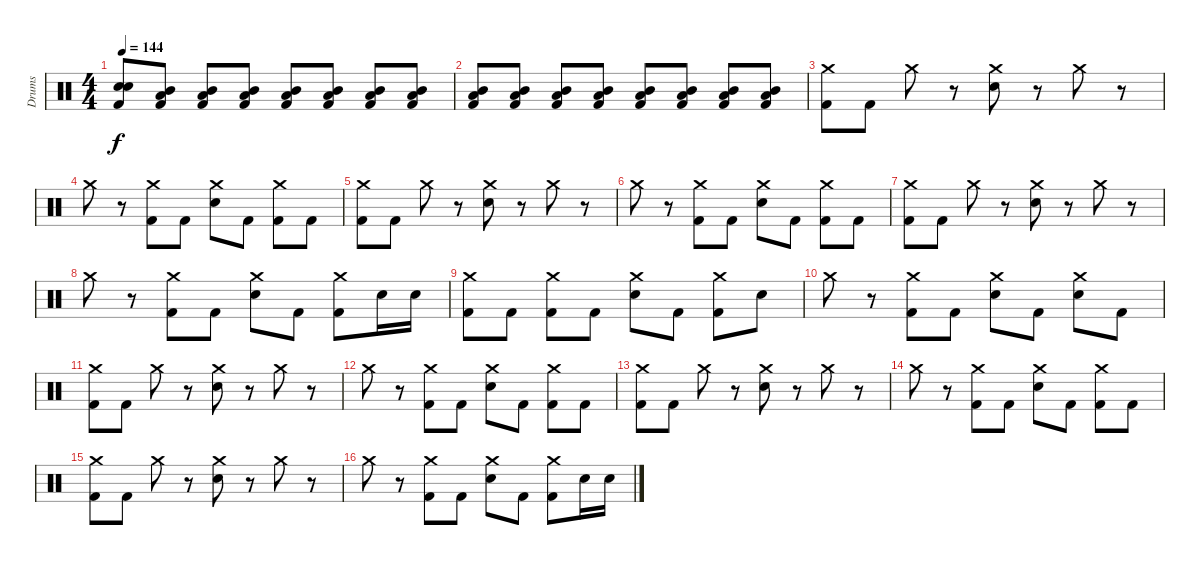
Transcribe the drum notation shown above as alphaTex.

\track ("Drums" "Drums") {instrument percussion}
\staff {score}
\articulation defaults
\ts (4 4)
\tempo 144
\clef neutral
\ks c
("Electric Snare (hit)" "Electric Snare (hit)" "Kick (hit) 2").8{dy f} ("Mid Tom (hit)" "Low Tom (hit)" "Kick (hit) 2").8 ("Mid Tom (hit)" "Low Tom (hit)" "Kick (hit) 2").8 ("Mid Tom (hit)" "Low Tom (hit)" "Kick (hit) 2").8 ("Mid Tom (hit)" "Low Tom (hit)" "Kick (hit) 2").8 ("Mid Tom (hit)" "Low Tom (hit)" "Kick (hit) 2").8 ("Mid Tom (hit)" "Low Tom (hit)" "Kick (hit) 2").8 ("Mid Tom (hit)" "Low Tom (hit)" "Kick (hit) 2").8 |
("Mid Tom (hit)" "Low Tom (hit)" "Kick (hit) 2").8 ("Mid Tom (hit)" "Low Tom (hit)" "Kick (hit) 2").8 ("Mid Tom (hit)" "Low Tom (hit)" "Kick (hit) 2").8 ("Mid Tom (hit)" "Low Tom (hit)" "Kick (hit) 2").8 ("Mid Tom (hit)" "Low Tom (hit)" "Kick (hit) 2").8 ("Mid Tom (hit)" "Low Tom (hit)" "Kick (hit) 2").8 ("Mid Tom (hit)" "Low Tom (hit)" "Kick (hit) 2").8 ("Mid Tom (hit)" "Low Tom (hit)" "Kick (hit) 2").8 |
("Crash medium (hit)" "Kick (hit) 2").8 "Kick (hit) 2".8 "Crash medium (hit)".8 r.8 ("Crash medium (hit)" "Electric Snare (hit)").8 r.8 "Crash medium (hit)".8 r.8 |
"Crash medium (hit)".8 r.8 ("Crash medium (hit)" "Kick (hit) 2").8 "Kick (hit) 2".8 ("Crash medium (hit)" "Electric Snare (hit)").8 "Kick (hit) 2".8 ("Crash medium (hit)" "Kick (hit) 2").8 "Kick (hit) 2".8 |
("Crash medium (hit)" "Kick (hit) 2").8 "Kick (hit) 2".8 "Crash medium (hit)".8 r.8 ("Crash medium (hit)" "Electric Snare (hit)").8 r.8 "Crash medium (hit)".8 r.8 |
"Crash medium (hit)".8 r.8 ("Crash medium (hit)" "Kick (hit) 2").8 "Kick (hit) 2".8 ("Crash medium (hit)" "Electric Snare (hit)").8 "Kick (hit) 2".8 ("Crash medium (hit)" "Kick (hit) 2").8 "Kick (hit) 2".8 |
("Crash medium (hit)" "Kick (hit) 2").8 "Kick (hit) 2".8 "Crash medium (hit)".8 r.8 ("Crash medium (hit)" "Electric Snare (hit)").8 r.8 "Crash medium (hit)".8 r.8 |
"Crash medium (hit)".8 r.8 ("Crash medium (hit)" "Kick (hit) 2").8 "Kick (hit) 2".8 ("Crash medium (hit)" "Electric Snare (hit)").8 "Kick (hit) 2".8 ("Crash medium (hit)" "Kick (hit) 2").8 "Electric Snare (hit)".16 "Electric Snare (hit)".16 |
("Crash medium (hit)" "Kick (hit) 2").8 "Kick (hit) 2".8 ("Crash medium (hit)" "Kick (hit) 2").8 "Kick (hit) 2".8 ("Crash medium (hit)" "Electric Snare (hit)").8 "Kick (hit) 2".8 ("Crash medium (hit)" "Kick (hit) 2").8 "Electric Snare (hit)".8 |
"Crash medium (hit)".8 r.8 ("Crash medium (hit)" "Kick (hit) 2").8 "Kick (hit) 2".8 ("Crash medium (hit)" "Electric Snare (hit)").8 "Kick (hit) 2".8 ("Crash medium (hit)" "Electric Snare (hit)").8 "Kick (hit) 2".8 |
("Crash medium (hit)" "Kick (hit) 2").8 "Kick (hit) 2".8 "Crash medium (hit)".8 r.8 ("Crash medium (hit)" "Electric Snare (hit)").8 r.8 "Crash medium (hit)".8 r.8 |
"Crash medium (hit)".8 r.8 ("Crash medium (hit)" "Kick (hit) 2").8 "Kick (hit) 2".8 ("Crash medium (hit)" "Electric Snare (hit)").8 "Kick (hit) 2".8 ("Crash medium (hit)" "Kick (hit) 2").8 "Kick (hit) 2".8 |
("Crash medium (hit)" "Kick (hit) 2").8 "Kick (hit) 2".8 "Crash medium (hit)".8 r.8 ("Crash medium (hit)" "Electric Snare (hit)").8 r.8 "Crash medium (hit)".8 r.8 |
"Crash medium (hit)".8 r.8 ("Crash medium (hit)" "Kick (hit) 2").8 "Kick (hit) 2".8 ("Crash medium (hit)" "Electric Snare (hit)").8 "Kick (hit) 2".8 ("Crash medium (hit)" "Kick (hit) 2").8 "Kick (hit) 2".8 |
("Crash medium (hit)" "Kick (hit) 2").8 "Kick (hit) 2".8 "Crash medium (hit)".8 r.8 ("Crash medium (hit)" "Electric Snare (hit)").8 r.8 "Crash medium (hit)".8 r.8 |
"Crash medium (hit)".8 r.8 ("Crash medium (hit)" "Kick (hit) 2").8 "Kick (hit) 2".8 ("Crash medium (hit)" "Electric Snare (hit)").8 "Kick (hit) 2".8 ("Crash medium (hit)" "Kick (hit) 2").8 "Electric Snare (hit)".16 "Electric Snare (hit)".16
